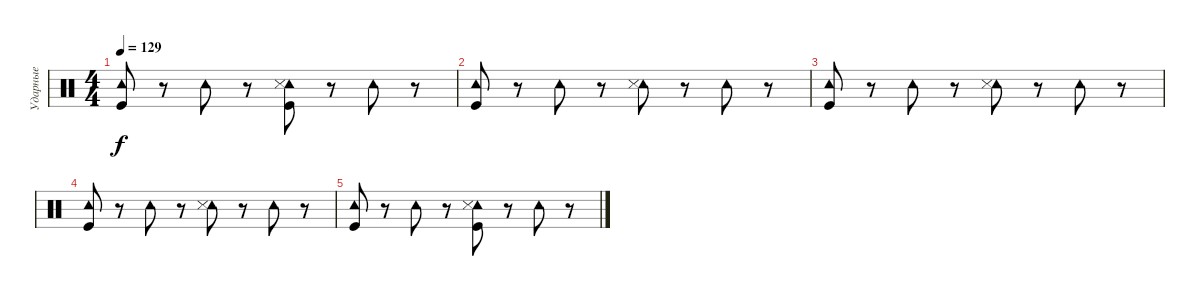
\track ("Ударные" "Ударные") {instrument percussion}
\staff {score}
\articulation defaults
\ts (4 4)
\tempo 129
\clef neutral
\ks c
("Tambourine (hit)" "Kick (hit)").8{dy f} r.8 "Tambourine (hit)".8 r.8 ("Tambourine (hit)" "Snare (side stick) 3" "Kick (hit)").8 r.8 "Tambourine (hit)".8 r.8 |
("Tambourine (hit)" "Kick (hit)").8 r.8 "Tambourine (hit)".8 r.8 ("Tambourine (hit)" "Snare (side stick) 3").8 r.8 "Tambourine (hit)".8 r.8 |
("Tambourine (hit)" "Kick (hit)").8 r.8 "Tambourine (hit)".8 r.8 ("Tambourine (hit)" "Snare (side stick) 3").8 r.8 "Tambourine (hit)".8 r.8 |
("Tambourine (hit)" "Kick (hit)").8 r.8 "Tambourine (hit)".8 r.8 ("Tambourine (hit)" "Snare (side stick) 3").8 r.8 "Tambourine (hit)".8 r.8 |
("Tambourine (hit)" "Kick (hit)").8 r.8 "Tambourine (hit)".8 r.8 ("Tambourine (hit)" "Snare (side stick) 3" "Kick (hit)").8 r.8 "Tambourine (hit)".8 r.8
